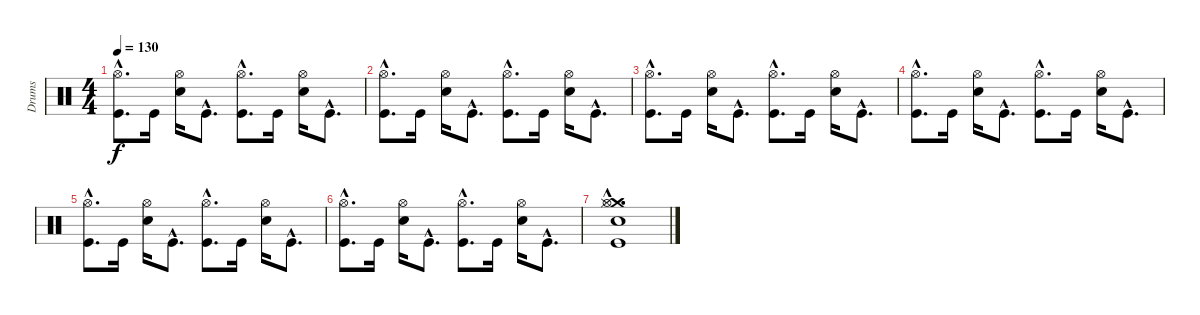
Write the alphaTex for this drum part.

\track ("Drums" "Drums") {instrument percussion}
\staff {score}
\articulation defaults
\ts (4 4)
\tempo 130
\clef neutral
\ks c
("Hi-Hat (open)"{hac} "Kick (hit)"{hac}).8{d dy f} "Kick (hit)".16 ("Hi-Hat (open)" "Snare (hit) 2").16 "Kick (hit)"{hac}.8{d} ("Hi-Hat (open)"{hac} "Kick (hit)"{hac}).8{d} "Kick (hit)".16 ("Hi-Hat (open)" "Snare (hit) 2").16 "Kick (hit)"{hac}.8{d} |
("Hi-Hat (open)"{hac} "Kick (hit)"{hac}).8{d} "Kick (hit)".16 ("Hi-Hat (open)" "Snare (hit) 2").16 "Kick (hit)"{hac}.8{d} ("Hi-Hat (open)"{hac} "Kick (hit)"{hac}).8{d} "Kick (hit)".16 ("Hi-Hat (open)" "Snare (hit) 2").16 "Kick (hit)"{hac}.8{d} |
("Hi-Hat (open)"{hac} "Kick (hit)"{hac}).8{d} "Kick (hit)".16 ("Hi-Hat (open)" "Snare (hit) 2").16 "Kick (hit)"{hac}.8{d} ("Hi-Hat (open)"{hac} "Kick (hit)"{hac}).8{d} "Kick (hit)".16 ("Hi-Hat (open)" "Snare (hit) 2").16 "Kick (hit)"{hac}.8{d} |
("Hi-Hat (open)"{hac} "Kick (hit)"{hac}).8{d} "Kick (hit)".16 ("Hi-Hat (open)" "Snare (hit) 2").16 "Kick (hit)"{hac}.8{d} ("Hi-Hat (open)"{hac} "Kick (hit)"{hac}).8{d} "Kick (hit)".16 ("Hi-Hat (open)" "Snare (hit) 2").16 "Kick (hit)"{hac}.8{d} |
("Hi-Hat (open)"{hac} "Kick (hit)"{hac}).8{d} "Kick (hit)".16 ("Hi-Hat (open)" "Snare (hit) 2").16 "Kick (hit)"{hac}.8{d} ("Hi-Hat (open)"{hac} "Kick (hit)"{hac}).8{d} "Kick (hit)".16 ("Hi-Hat (open)" "Snare (hit) 2").16 "Kick (hit)"{hac}.8{d} |
("Hi-Hat (open)"{hac} "Kick (hit)"{hac}).8{d} "Kick (hit)".16 ("Hi-Hat (open)" "Snare (hit) 2").16 "Kick (hit)"{hac}.8{d} ("Hi-Hat (open)"{hac} "Kick (hit)"{hac}).8{d} "Kick (hit)".16 ("Hi-Hat (open)" "Snare (hit) 2").16 "Kick (hit)"{hac}.8{d} |
("Snare (hit) 2"{hac} "Crash medium (hit)"{hac} "Hi-Hat (closed)"{hac} "Hi-Hat (open)"{hac} "Kick (hit)"{hac}).1{d}
